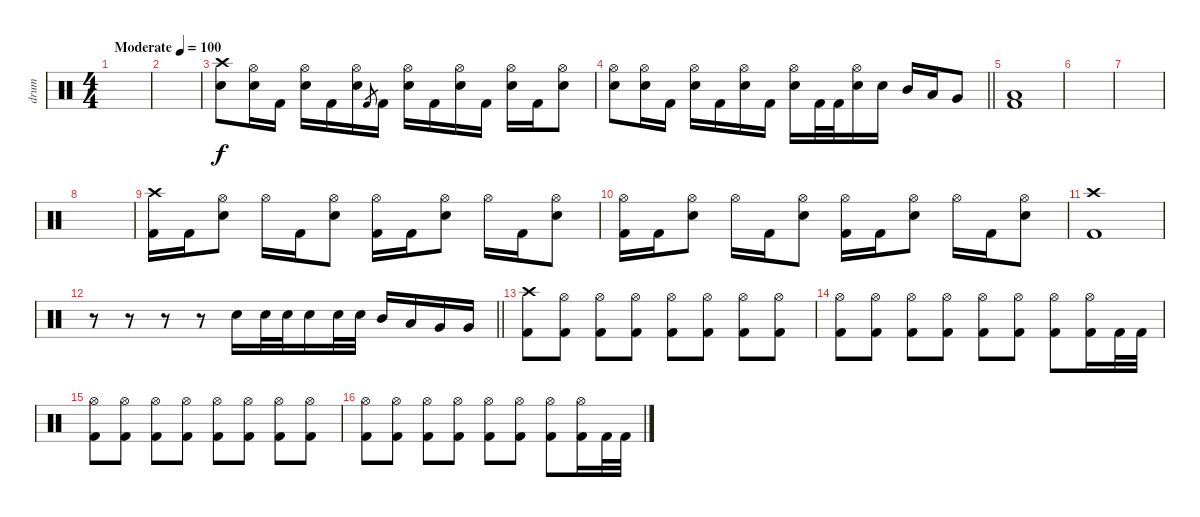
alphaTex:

\track ("drum" "drum") {instrument percussion}
\staff {score}
\articulation defaults
\ts (4 4)
\tempo (100 "Moderate")
\clef neutral
\ks c
|
|
("Crash high (hit)" "Electric Snare (hit)").8 ("Hi-Hat (open)" "Electric Snare (hit)").16 "Kick (hit) 2".16 ("Hi-Hat (open)" "Electric Snare (hit)").16 "Kick (hit) 2".16 ("Hi-Hat (open)" "Electric Snare (hit)").16 "Kick (hit) 2".8{gr} "Kick (hit) 2".16 ("Hi-Hat (open)" "Electric Snare (hit)").16 "Kick (hit) 2".16 ("Hi-Hat (open)" "Electric Snare (hit)").16 "Kick (hit) 2".16 ("Hi-Hat (open)" "Electric Snare (hit)").16 "Kick (hit) 2".16 ("Hi-Hat (open)" "Electric Snare (hit)").8 |
\barLineRight lightlight
("Hi-Hat (open)" "Electric Snare (hit)").8 ("Hi-Hat (open)" "Electric Snare (hit)").16 "Kick (hit) 2".16 ("Hi-Hat (open)" "Electric Snare (hit)").16 "Kick (hit) 2".16 ("Hi-Hat (open)" "Electric Snare (hit)").16 "Kick (hit) 2".16 ("Hi-Hat (open)" "Electric Snare (hit)").16 "Kick (hit) 2".32 "Kick (hit) 2".32 ("Hi-Hat (open)" "Electric Snare (hit)").16 "Electric Snare (hit)".16 "Mid Tom (hit)".16 "Low Tom (hit)".16 "Very Low Tom (hit)".8 |
("Low Floor Tom (hit)" "Kick (hit) 2").1 |
|
|
|
("Crash high (hit)" "Kick (hit) 2").16 "Kick (hit) 2".16 ("Hi-Hat (open)" "Electric Snare (hit)").8 "Hi-Hat (open)".16 "Kick (hit) 2".16 ("Hi-Hat (open)" "Electric Snare (hit)").8 ("Hi-Hat (open)" "Kick (hit) 2").16 "Kick (hit) 2".16 ("Hi-Hat (open)" "Electric Snare (hit)").8 "Hi-Hat (open)".16 "Kick (hit) 2".16 ("Hi-Hat (open)" "Electric Snare (hit)").8 |
("Hi-Hat (open)" "Kick (hit) 2").16 "Kick (hit) 2".16 ("Hi-Hat (open)" "Electric Snare (hit)").8 "Hi-Hat (open)".16 "Kick (hit) 2".16 ("Hi-Hat (open)" "Electric Snare (hit)").8 ("Hi-Hat (open)" "Kick (hit) 2").16 "Kick (hit) 2".16 ("Hi-Hat (open)" "Electric Snare (hit)").8 "Hi-Hat (open)".16 "Kick (hit) 2".16 ("Hi-Hat (open)" "Electric Snare (hit)").8 |
("Crash high (hit)" "Kick (hit) 2").1 |
\barLineRight lightlight
r.8 r.8 r.8 r.8 "Electric Snare (hit)".16 "Electric Snare (hit)".32 "Electric Snare (hit)".32 "Electric Snare (hit)".16 "Electric Snare (hit)".32 "Electric Snare (hit)".32 "Mid Tom (hit)".16 "Low Tom (hit)".16 "Very Low Tom (hit)".16 "Very Low Tom (hit)".16 |
("Crash high (hit)" "Kick (hit) 2").8 ("Hi-Hat (open)" "Kick (hit) 2").8 ("Hi-Hat (open)" "Kick (hit) 2").8 ("Hi-Hat (open)" "Kick (hit) 2").8 ("Hi-Hat (open)" "Kick (hit) 2").8 ("Hi-Hat (open)" "Kick (hit) 2").8 ("Hi-Hat (open)" "Kick (hit) 2").8 ("Hi-Hat (open)" "Kick (hit) 2").8 |
("Hi-Hat (open)" "Kick (hit) 2").8 ("Hi-Hat (open)" "Kick (hit) 2").8 ("Hi-Hat (open)" "Kick (hit) 2").8 ("Hi-Hat (open)" "Kick (hit) 2").8 ("Hi-Hat (open)" "Kick (hit) 2").8 ("Hi-Hat (open)" "Kick (hit) 2").8 ("Hi-Hat (open)" "Kick (hit) 2").8 ("Hi-Hat (open)" "Kick (hit) 2").16 "Kick (hit) 2".32 "Kick (hit) 2".32 |
("Hi-Hat (open)" "Kick (hit) 2").8 ("Hi-Hat (open)" "Kick (hit) 2").8 ("Hi-Hat (open)" "Kick (hit) 2").8 ("Hi-Hat (open)" "Kick (hit) 2").8 ("Hi-Hat (open)" "Kick (hit) 2").8 ("Hi-Hat (open)" "Kick (hit) 2").8 ("Hi-Hat (open)" "Kick (hit) 2").8 ("Hi-Hat (open)" "Kick (hit) 2").8 |
("Hi-Hat (open)" "Kick (hit) 2").8 ("Hi-Hat (open)" "Kick (hit) 2").8 ("Hi-Hat (open)" "Kick (hit) 2").8 ("Hi-Hat (open)" "Kick (hit) 2").8 ("Hi-Hat (open)" "Kick (hit) 2").8 ("Hi-Hat (open)" "Kick (hit) 2").8 ("Hi-Hat (open)" "Kick (hit) 2").8 ("Hi-Hat (open)" "Kick (hit) 2").16 "Kick (hit) 2".32 "Kick (hit) 2".32
